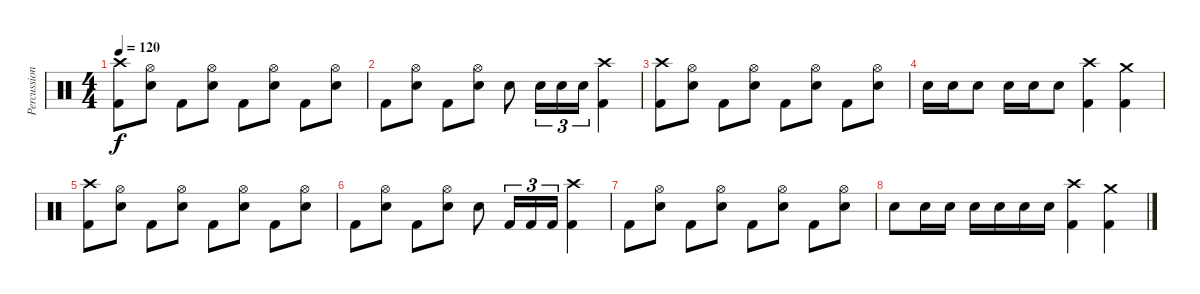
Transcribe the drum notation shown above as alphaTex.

\track ("Percussioni" "Percussion") {instrument percussion}
\staff {score}
\articulation defaults
\ts (4 4)
\tempo 120
\clef neutral
\ks c
("Crash high (hit)" "Kick (hit) 2").8{dy f} ("Hi-Hat (open)" "Electric Snare (hit)").8 "Kick (hit) 2".8 ("Hi-Hat (open)" "Electric Snare (hit)").8 "Kick (hit) 2".8 ("Hi-Hat (open)" "Electric Snare (hit)").8 "Kick (hit) 2".8 ("Hi-Hat (open)" "Electric Snare (hit)").8 |
"Kick (hit) 2".8 ("Hi-Hat (open)" "Electric Snare (hit)").8 "Kick (hit) 2".8 ("Hi-Hat (open)" "Electric Snare (hit)").8 "Electric Snare (hit)".8 "Electric Snare (hit)".16{tu (3 2)} "Electric Snare (hit)".16{tu (3 2)} "Electric Snare (hit)".16{tu (3 2)} ("Crash high (hit)" "Kick (hit) 2").4 |
("Crash high (hit)" "Kick (hit) 2").8 ("Hi-Hat (open)" "Electric Snare (hit)").8 "Kick (hit) 2".8 ("Hi-Hat (open)" "Electric Snare (hit)").8 "Kick (hit) 2".8 ("Hi-Hat (open)" "Electric Snare (hit)").8 "Kick (hit) 2".8 ("Hi-Hat (open)" "Electric Snare (hit)").8 |
"Electric Snare (hit)".16 "Electric Snare (hit)".16 "Electric Snare (hit)".8 "Electric Snare (hit)".16 "Electric Snare (hit)".16 "Electric Snare (hit)".8 ("Crash high (hit)" "Kick (hit) 2").4 ("Crash medium (hit)" "Kick (hit) 2").4 |
("Crash high (hit)" "Kick (hit) 2").8 ("Hi-Hat (open)" "Electric Snare (hit)").8 "Kick (hit) 2".8 ("Hi-Hat (open)" "Electric Snare (hit)").8 "Kick (hit) 2".8 ("Hi-Hat (open)" "Electric Snare (hit)").8 "Kick (hit) 2".8 ("Hi-Hat (open)" "Electric Snare (hit)").8 |
"Kick (hit) 2".8 ("Hi-Hat (open)" "Electric Snare (hit)").8 "Kick (hit) 2".8 ("Hi-Hat (open)" "Electric Snare (hit)").8 "Electric Snare (hit)".8 "Kick (hit) 2".16{tu (3 2)} "Kick (hit) 2".16{tu (3 2)} "Kick (hit) 2".16{tu (3 2)} ("Crash high (hit)" "Kick (hit) 2").4 |
"Kick (hit) 2".8 ("Hi-Hat (open)" "Electric Snare (hit)").8 "Kick (hit) 2".8 ("Hi-Hat (open)" "Electric Snare (hit)").8 "Kick (hit) 2".8 ("Hi-Hat (open)" "Electric Snare (hit)").8 "Kick (hit) 2".8 ("Hi-Hat (open)" "Electric Snare (hit)").8 |
"Electric Snare (hit)".8 "Electric Snare (hit)".16 "Electric Snare (hit)".16 "Electric Snare (hit)".16 "Electric Snare (hit)".16 "Electric Snare (hit)".16 "Electric Snare (hit)".16 ("Crash high (hit)" "Kick (hit) 2").4 ("Crash medium (hit)" "Kick (hit) 2").4
